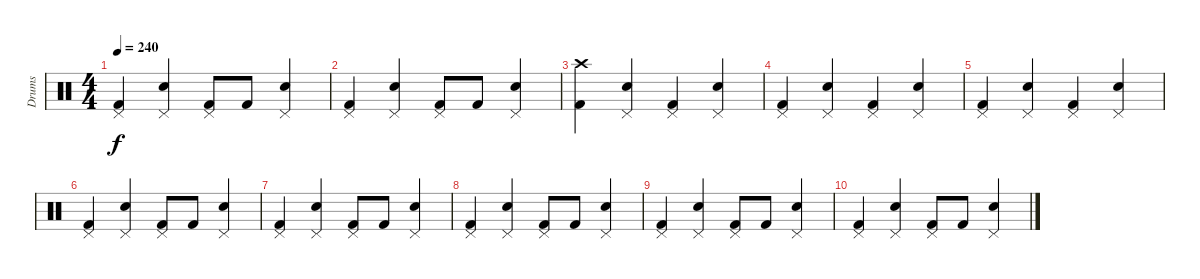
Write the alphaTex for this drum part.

\track ("Drums" "Drums") {instrument percussion}
\staff {score}
\articulation defaults
\ts (4 4)
\tempo 240
\clef neutral
\ks c
("Pedal Hi-Hat (hit)" "Kick (hit) 2").4{dy f} ("Pedal Hi-Hat (hit)" "Snare (hit) 2").4 ("Pedal Hi-Hat (hit)" "Kick (hit) 2").8 "Kick (hit) 2".8 ("Pedal Hi-Hat (hit)" "Snare (hit) 2").4 |
("Pedal Hi-Hat (hit)" "Kick (hit) 2").4 ("Pedal Hi-Hat (hit)" "Snare (hit) 2").4 ("Pedal Hi-Hat (hit)" "Kick (hit) 2").8 "Kick (hit) 2".8 ("Pedal Hi-Hat (hit)" "Snare (hit) 2").4 |
("Crash high (hit)" "Kick (hit) 2").4 ("Pedal Hi-Hat (hit)" "Snare (hit) 2").4 ("Pedal Hi-Hat (hit)" "Kick (hit) 2").4 ("Pedal Hi-Hat (hit)" "Snare (hit) 2").4 |
("Pedal Hi-Hat (hit)" "Kick (hit) 2").4 ("Pedal Hi-Hat (hit)" "Snare (hit) 2").4 ("Pedal Hi-Hat (hit)" "Kick (hit) 2").4 ("Pedal Hi-Hat (hit)" "Snare (hit) 2").4 |
("Pedal Hi-Hat (hit)" "Kick (hit) 2").4 ("Pedal Hi-Hat (hit)" "Snare (hit) 2").4 ("Pedal Hi-Hat (hit)" "Kick (hit) 2").4 ("Pedal Hi-Hat (hit)" "Snare (hit) 2").4 |
("Pedal Hi-Hat (hit)" "Kick (hit) 2").4 ("Pedal Hi-Hat (hit)" "Snare (hit) 2").4 ("Pedal Hi-Hat (hit)" "Kick (hit) 2").8 "Kick (hit) 2".8 ("Pedal Hi-Hat (hit)" "Snare (hit) 2").4 |
("Pedal Hi-Hat (hit)" "Kick (hit) 2").4 ("Pedal Hi-Hat (hit)" "Snare (hit) 2").4 ("Pedal Hi-Hat (hit)" "Kick (hit) 2").8 "Kick (hit) 2".8 ("Pedal Hi-Hat (hit)" "Snare (hit) 2").4 |
("Pedal Hi-Hat (hit)" "Kick (hit) 2").4 ("Pedal Hi-Hat (hit)" "Snare (hit) 2").4 ("Pedal Hi-Hat (hit)" "Kick (hit) 2").8 "Kick (hit) 2".8 ("Pedal Hi-Hat (hit)" "Snare (hit) 2").4 |
("Pedal Hi-Hat (hit)" "Kick (hit) 2").4 ("Pedal Hi-Hat (hit)" "Snare (hit) 2").4 ("Pedal Hi-Hat (hit)" "Kick (hit) 2").8 "Kick (hit) 2".8 ("Pedal Hi-Hat (hit)" "Snare (hit) 2").4 |
("Pedal Hi-Hat (hit)" "Kick (hit) 2").4 ("Pedal Hi-Hat (hit)" "Snare (hit) 2").4 ("Pedal Hi-Hat (hit)" "Kick (hit) 2").8 "Kick (hit) 2".8 ("Pedal Hi-Hat (hit)" "Snare (hit) 2").4
